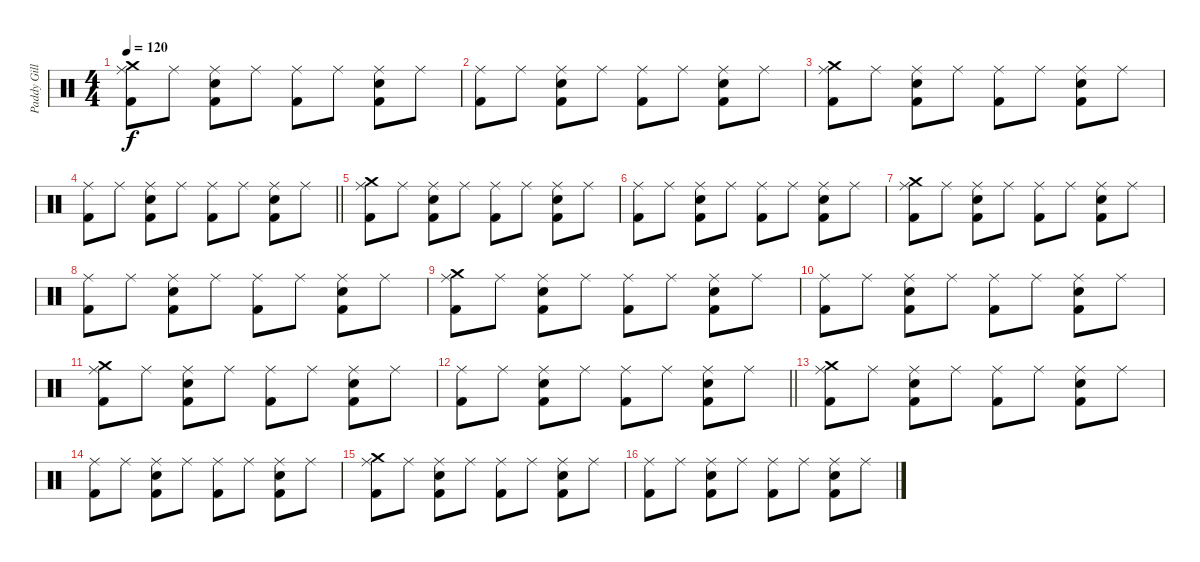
\track ("Paddy Gillespie" "Paddy Gill") {instrument percussion}
\staff {score}
\articulation defaults
\ts (4 4)
\tempo 120
\clef neutral
\ks c
("Kick (hit) 2" "Crash medium (hit)" "Ride (middle)").8{dy f} "Ride (middle)".8 ("Kick (hit) 2" "Ride (middle)" "Snare (hit) 2").8 "Ride (middle)".8 ("Kick (hit) 2" "Ride (middle)").8 "Ride (middle)".8 ("Kick (hit) 2" "Ride (middle)" "Snare (hit) 2").8 "Ride (middle)".8 |
("Kick (hit) 2" "Ride (middle)").8 "Ride (middle)".8 ("Kick (hit) 2" "Ride (middle)" "Snare (hit) 2").8 "Ride (middle)".8 ("Kick (hit) 2" "Ride (middle)").8 "Ride (middle)".8 ("Kick (hit) 2" "Ride (middle)" "Snare (hit) 2").8 "Ride (middle)".8 |
("Kick (hit) 2" "Crash medium (hit)" "Ride (middle)").8 "Ride (middle)".8 ("Kick (hit) 2" "Ride (middle)" "Snare (hit) 2").8 "Ride (middle)".8 ("Kick (hit) 2" "Ride (middle)").8 "Ride (middle)".8 ("Kick (hit) 2" "Ride (middle)" "Snare (hit) 2").8 "Ride (middle)".8 |
\barLineRight lightlight
("Kick (hit) 2" "Ride (middle)").8 "Ride (middle)".8 ("Kick (hit) 2" "Ride (middle)" "Snare (hit) 2").8 "Ride (middle)".8 ("Kick (hit) 2" "Ride (middle)").8 "Ride (middle)".8 ("Kick (hit) 2" "Ride (middle)" "Snare (hit) 2").8 "Ride (middle)".8 |
("Kick (hit) 2" "Crash medium (hit)" "Ride (middle)").8 "Ride (middle)".8 ("Kick (hit) 2" "Ride (middle)" "Snare (hit) 2").8 "Ride (middle)".8 ("Kick (hit) 2" "Ride (middle)").8 "Ride (middle)".8 ("Kick (hit) 2" "Ride (middle)" "Snare (hit) 2").8 "Ride (middle)".8 |
("Kick (hit) 2" "Ride (middle)").8 "Ride (middle)".8 ("Kick (hit) 2" "Ride (middle)" "Snare (hit) 2").8 "Ride (middle)".8 ("Kick (hit) 2" "Ride (middle)").8 "Ride (middle)".8 ("Kick (hit) 2" "Ride (middle)" "Snare (hit) 2").8 "Ride (middle)".8 |
("Kick (hit) 2" "Crash medium (hit)" "Ride (middle)").8 "Ride (middle)".8 ("Kick (hit) 2" "Ride (middle)" "Snare (hit) 2").8 "Ride (middle)".8 ("Kick (hit) 2" "Ride (middle)").8 "Ride (middle)".8 ("Kick (hit) 2" "Ride (middle)" "Snare (hit) 2").8 "Ride (middle)".8 |
("Kick (hit) 2" "Ride (middle)").8 "Ride (middle)".8 ("Kick (hit) 2" "Ride (middle)" "Snare (hit) 2").8 "Ride (middle)".8 ("Kick (hit) 2" "Ride (middle)").8 "Ride (middle)".8 ("Kick (hit) 2" "Ride (middle)" "Snare (hit) 2").8 "Ride (middle)".8 |
("Kick (hit) 2" "Crash medium (hit)" "Ride (middle)").8 "Ride (middle)".8 ("Kick (hit) 2" "Ride (middle)" "Snare (hit) 2").8 "Ride (middle)".8 ("Kick (hit) 2" "Ride (middle)").8 "Ride (middle)".8 ("Kick (hit) 2" "Ride (middle)" "Snare (hit) 2").8 "Ride (middle)".8 |
("Kick (hit) 2" "Ride (middle)").8 "Ride (middle)".8 ("Kick (hit) 2" "Ride (middle)" "Snare (hit) 2").8 "Ride (middle)".8 ("Kick (hit) 2" "Ride (middle)").8 "Ride (middle)".8 ("Kick (hit) 2" "Ride (middle)" "Snare (hit) 2").8 "Ride (middle)".8 |
("Kick (hit) 2" "Crash medium (hit)" "Ride (middle)").8 "Ride (middle)".8 ("Kick (hit) 2" "Ride (middle)" "Snare (hit) 2").8 "Ride (middle)".8 ("Kick (hit) 2" "Ride (middle)").8 "Ride (middle)".8 ("Kick (hit) 2" "Ride (middle)" "Snare (hit) 2").8 "Ride (middle)".8 |
\barLineRight lightlight
("Kick (hit) 2" "Ride (middle)").8 "Ride (middle)".8 ("Kick (hit) 2" "Ride (middle)" "Snare (hit) 2").8 "Ride (middle)".8 ("Kick (hit) 2" "Ride (middle)").8 "Ride (middle)".8 ("Kick (hit) 2" "Ride (middle)" "Snare (hit) 2").8 "Ride (middle)".8 |
("Kick (hit) 2" "Crash medium (hit)" "Ride (middle)").8 "Ride (middle)".8 ("Kick (hit) 2" "Ride (middle)" "Snare (hit) 2").8 "Ride (middle)".8 ("Kick (hit) 2" "Ride (middle)").8 "Ride (middle)".8 ("Kick (hit) 2" "Ride (middle)" "Snare (hit) 2").8 "Ride (middle)".8 |
("Kick (hit) 2" "Ride (middle)").8 "Ride (middle)".8 ("Kick (hit) 2" "Ride (middle)" "Snare (hit) 2").8 "Ride (middle)".8 ("Kick (hit) 2" "Ride (middle)").8 "Ride (middle)".8 ("Kick (hit) 2" "Ride (middle)" "Snare (hit) 2").8 "Ride (middle)".8 |
("Kick (hit) 2" "Crash medium (hit)" "Ride (middle)").8 "Ride (middle)".8 ("Kick (hit) 2" "Ride (middle)" "Snare (hit) 2").8 "Ride (middle)".8 ("Kick (hit) 2" "Ride (middle)").8 "Ride (middle)".8 ("Kick (hit) 2" "Ride (middle)" "Snare (hit) 2").8 "Ride (middle)".8 |
("Kick (hit) 2" "Ride (middle)").8 "Ride (middle)".8 ("Kick (hit) 2" "Ride (middle)" "Snare (hit) 2").8 "Ride (middle)".8 ("Kick (hit) 2" "Ride (middle)").8 "Ride (middle)".8 ("Kick (hit) 2" "Ride (middle)" "Snare (hit) 2").8 "Ride (middle)".8
